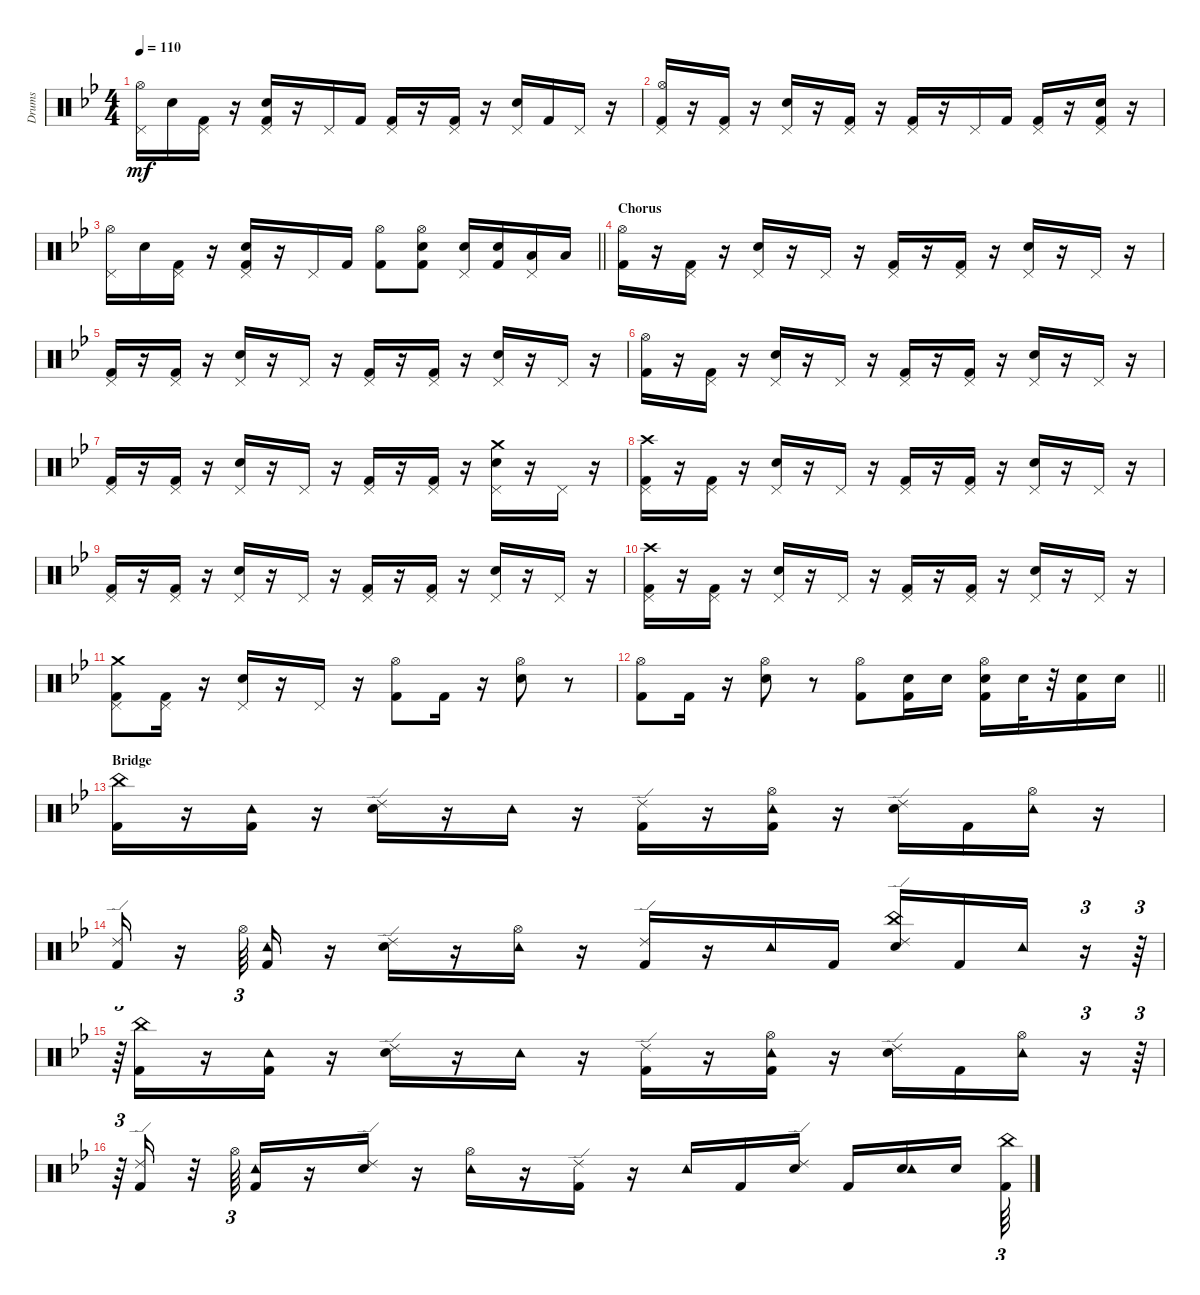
\track ("Drums" "Drums") {instrument percussion}
\staff {score}
\articulation defaults
\ts (4 4)
\tempo 110
\clef neutral
\ks gminor
("Pedal Hi-Hat (hit)" "Hi-Hat (open)").16{dy mf} "Snare (hit) 2".16 ("Kick (hit) 2" "Pedal Hi-Hat (hit)").16 r.16 ("Kick (hit) 2" "Snare (hit) 2" "Pedal Hi-Hat (hit)").16 r.16 "Pedal Hi-Hat (hit)".16 "Kick (hit) 2".16 ("Kick (hit) 2" "Pedal Hi-Hat (hit)").16 r.16 ("Kick (hit) 2" "Pedal Hi-Hat (hit)").16 r.16 ("Snare (hit) 2" "Pedal Hi-Hat (hit)").16 "Kick (hit) 2".16 "Pedal Hi-Hat (hit)".16 r.16 |
("Kick (hit) 2" "Pedal Hi-Hat (hit)" "Hi-Hat (open)").16 r.16 ("Kick (hit) 2" "Pedal Hi-Hat (hit)").16 r.16 ("Snare (hit) 2" "Pedal Hi-Hat (hit)").16 r.16 ("Kick (hit) 2" "Pedal Hi-Hat (hit)").16 r.16 ("Kick (hit) 2" "Pedal Hi-Hat (hit)").16 r.16 "Pedal Hi-Hat (hit)".16 "Kick (hit) 2".16 ("Kick (hit) 2" "Pedal Hi-Hat (hit)").16 r.16 ("Kick (hit) 2" "Snare (hit) 2" "Pedal Hi-Hat (hit)").16 r.16 |
\barLineRight lightlight
("Pedal Hi-Hat (hit)" "Hi-Hat (open)").16 "Snare (hit) 2".16 ("Kick (hit) 2" "Pedal Hi-Hat (hit)").16 r.16 ("Kick (hit) 2" "Snare (hit) 2" "Pedal Hi-Hat (hit)").16 r.16 "Pedal Hi-Hat (hit)".16 "Kick (hit) 2".16 ("Kick (hit) 2" "Hi-Hat (open)").8 ("Kick (hit) 2" "Snare (hit) 2" "Hi-Hat (open)").8 ("Snare (hit) 2" "Pedal Hi-Hat (hit)").16 ("Kick (hit) 2" "Snare (hit) 2").16 ("Low Floor Tom (hit)" "Pedal Hi-Hat (hit)").16 "Low Floor Tom (hit)".16 |
\section ("" "Chorus")
("Kick (hit) 2" "Hi-Hat (open)").16 r.16 ("Kick (hit) 2" "Pedal Hi-Hat (hit)").16 r.16 ("Snare (hit) 2" "Pedal Hi-Hat (hit)").16 r.16 "Pedal Hi-Hat (hit)".16 r.16 ("Kick (hit) 2" "Pedal Hi-Hat (hit)").16 r.16 ("Kick (hit) 2" "Pedal Hi-Hat (hit)").16 r.16 ("Snare (hit) 2" "Pedal Hi-Hat (hit)").16 r.16 "Pedal Hi-Hat (hit)".16 r.16 |
("Kick (hit) 2" "Pedal Hi-Hat (hit)").16 r.16 ("Kick (hit) 2" "Pedal Hi-Hat (hit)").16 r.16 ("Snare (hit) 2" "Pedal Hi-Hat (hit)").16 r.16 "Pedal Hi-Hat (hit)".16 r.16 ("Kick (hit) 2" "Pedal Hi-Hat (hit)").16 r.16 ("Kick (hit) 2" "Pedal Hi-Hat (hit)").16 r.16 ("Snare (hit) 2" "Pedal Hi-Hat (hit)").16 r.16 "Pedal Hi-Hat (hit)".16 r.16 |
("Kick (hit) 2" "Hi-Hat (open)").16 r.16 ("Kick (hit) 2" "Pedal Hi-Hat (hit)").16 r.16 ("Snare (hit) 2" "Pedal Hi-Hat (hit)").16 r.16 "Pedal Hi-Hat (hit)".16 r.16 ("Kick (hit) 2" "Pedal Hi-Hat (hit)").16 r.16 ("Kick (hit) 2" "Pedal Hi-Hat (hit)").16 r.16 ("Snare (hit) 2" "Pedal Hi-Hat (hit)").16 r.16 "Pedal Hi-Hat (hit)".16 r.16 |
("Kick (hit) 2" "Pedal Hi-Hat (hit)").16 r.16 ("Kick (hit) 2" "Pedal Hi-Hat (hit)").16 r.16 ("Snare (hit) 2" "Pedal Hi-Hat (hit)").16 r.16 "Pedal Hi-Hat (hit)".16 r.16 ("Kick (hit) 2" "Pedal Hi-Hat (hit)").16 r.16 ("Kick (hit) 2" "Pedal Hi-Hat (hit)").16 r.16 ("Snare (hit) 2" "Pedal Hi-Hat (hit)" "Crash medium (hit)").16 r.16 "Pedal Hi-Hat (hit)".16 r.16 |
("Kick (hit) 2" "Pedal Hi-Hat (hit)" "Crash high (hit)").16 r.16 ("Kick (hit) 2" "Pedal Hi-Hat (hit)").16 r.16 ("Snare (hit) 2" "Pedal Hi-Hat (hit)").16 r.16 "Pedal Hi-Hat (hit)".16 r.16 ("Kick (hit) 2" "Pedal Hi-Hat (hit)").16 r.16 ("Kick (hit) 2" "Pedal Hi-Hat (hit)").16 r.16 ("Snare (hit) 2" "Pedal Hi-Hat (hit)").16 r.16 "Pedal Hi-Hat (hit)".16 r.16 |
("Kick (hit) 2" "Pedal Hi-Hat (hit)").16 r.16 ("Kick (hit) 2" "Pedal Hi-Hat (hit)").16 r.16 ("Snare (hit) 2" "Pedal Hi-Hat (hit)").16 r.16 "Pedal Hi-Hat (hit)".16 r.16 ("Kick (hit) 2" "Pedal Hi-Hat (hit)").16 r.16 ("Kick (hit) 2" "Pedal Hi-Hat (hit)").16 r.16 ("Snare (hit) 2" "Pedal Hi-Hat (hit)").16 r.16 "Pedal Hi-Hat (hit)".16 r.16 |
("Kick (hit) 2" "Pedal Hi-Hat (hit)" "Crash high (hit)").16 r.16 ("Kick (hit) 2" "Pedal Hi-Hat (hit)").16 r.16 ("Snare (hit) 2" "Pedal Hi-Hat (hit)").16 r.16 "Pedal Hi-Hat (hit)".16 r.16 ("Kick (hit) 2" "Pedal Hi-Hat (hit)").16 r.16 ("Kick (hit) 2" "Pedal Hi-Hat (hit)").16 r.16 ("Snare (hit) 2" "Pedal Hi-Hat (hit)").16 r.16 "Pedal Hi-Hat (hit)".16 r.16 |
("Kick (hit) 2" "Pedal Hi-Hat (hit)" "Crash medium (hit)").8 ("Kick (hit) 2" "Pedal Hi-Hat (hit)").16 r.16 ("Snare (hit) 2" "Pedal Hi-Hat (hit)").16 r.16 "Pedal Hi-Hat (hit)".16 r.16 ("Kick (hit) 2" "Hi-Hat (open)").8 "Kick (hit) 2".16 r.16 ("Snare (hit) 2" "Hi-Hat (open)").8 r.8 |
\barLineRight lightlight
("Hi-Hat (open)" "Kick (hit) 2").8 "Kick (hit) 2".16 r.16 ("Snare (hit) 2" "Hi-Hat (open)").8 r.8 ("Kick (hit) 2" "Hi-Hat (open)").8 ("Kick (hit) 2" "Snare (hit) 2").16 "Snare (hit) 2".16 ("Kick (hit) 2" "Snare (hit) 2" "Hi-Hat (open)").16 "Snare (hit) 2".32 r.32 ("Kick (hit) 2" "Snare (hit) 2").16 "Snare (hit) 2".16 |
\section ("" "Bridge")
("Kick (hit) 2" "China (hit)").16 r.16 ("Kick (hit) 2" "Tambourine (hit)").16 r.16 ("Snare (hit) 2" "Ride (edge) 2").16 r.16 "Tambourine (hit)".16 r.16 ("Kick (hit) 2" "Ride (edge) 2").16 r.16 ("Kick (hit) 2" "Hi-Hat (open)" "Tambourine (hit)").16 r.16 ("Snare (hit) 2" "Ride (edge) 2").16 "Kick (hit) 2".16 ("Hi-Hat (open)" "Tambourine (hit)").16 r.16 |
("Kick (hit) 2" "Ride (edge) 2").16 r.16 "Hi-Hat (open)".64{tu (3 2)} ("Kick (hit) 2" "Tambourine (hit)").16 r.16 ("Snare (hit) 2" "Ride (edge) 2").16 r.16 ("Hi-Hat (open)" "Tambourine (hit)").16 r.16 ("Kick (hit) 2" "Ride (edge) 2").16 r.16 "Tambourine (hit)".16 "Kick (hit) 2".16 ("Snare (hit) 2" "China (hit)" "Ride (edge) 2").16 "Kick (hit) 2".16 "Tambourine (hit)".16 r.16{tu (3 2)} r.64{tu (3 2)} |
r.64{tu (3 2)} ("Kick (hit) 2" "China (hit)").16 r.16 ("Kick (hit) 2" "Tambourine (hit)").16 r.16 ("Snare (hit) 2" "Ride (edge) 2").16 r.16 "Tambourine (hit)".16 r.16 ("Kick (hit) 2" "Ride (edge) 2").16 r.16 ("Kick (hit) 2" "Hi-Hat (open)" "Tambourine (hit)").16 r.16 ("Snare (hit) 2" "Ride (edge) 2").16 "Kick (hit) 2".16 ("Hi-Hat (open)" "Tambourine (hit)").16 r.16{tu (3 2)} r.64{tu (3 2)} |
r.64{tu (3 2)} ("Kick (hit) 2" "Ride (edge) 2").16 r.32 "Hi-Hat (open)".64{tu (3 2)} ("Kick (hit) 2" "Tambourine (hit)").16 r.16 ("Snare (hit) 2" "Ride (edge) 2").16 r.16 ("Hi-Hat (open)" "Tambourine (hit)").16 r.16 ("Kick (hit) 2" "Ride (edge) 2").16 r.16 "Tambourine (hit)".16 "Kick (hit) 2".16 ("Snare (hit) 2" "Ride (edge) 2").16 "Kick (hit) 2".16 ("Snare (hit) 2" "Tambourine (hit)").16 "Snare (hit) 2".16{beam splitsecondary} ("Kick (hit) 2" "China (hit)").64{tu (3 2)}
